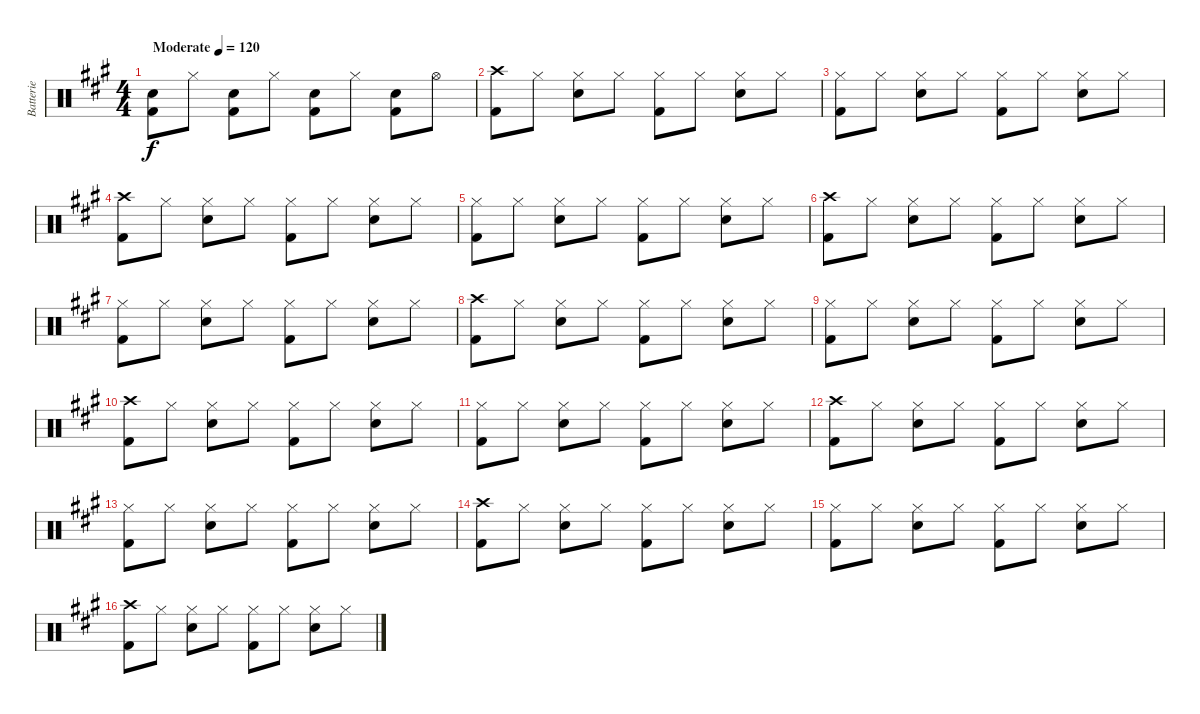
\track ("Batterie" "Batterie") {instrument percussion}
\staff {score}
\articulation defaults
\ts (4 4)
\tempo (120 "Moderate")
\clef neutral
\ks a
("Snare (hit) 2" "Kick (hit) 2").8{dy f} "Hi-Hat (closed)".8 ("Snare (hit) 2" "Kick (hit) 2").8 "Hi-Hat (closed)".8 ("Snare (hit) 2" "Kick (hit) 2").8 "Hi-Hat (closed)".8 ("Snare (hit) 2" "Kick (hit) 2").8 "Hi-Hat (open)".8 |
("Crash high (hit)" "Kick (hit) 2").8 "Hi-Hat (closed)".8 ("Hi-Hat (closed)" "Snare (hit) 2").8 "Hi-Hat (closed)".8 ("Hi-Hat (closed)" "Kick (hit) 2").8 "Hi-Hat (closed)".8 ("Hi-Hat (closed)" "Snare (hit) 2").8 "Hi-Hat (closed)".8 |
("Hi-Hat (closed)" "Kick (hit) 2").8 "Hi-Hat (closed)".8 ("Hi-Hat (closed)" "Snare (hit) 2").8 "Hi-Hat (closed)".8 ("Hi-Hat (closed)" "Kick (hit) 2").8 "Hi-Hat (closed)".8 ("Hi-Hat (closed)" "Snare (hit) 2").8 "Hi-Hat (closed)".8 |
("Crash high (hit)" "Kick (hit) 2").8 "Hi-Hat (closed)".8 ("Hi-Hat (closed)" "Snare (hit) 2").8 "Hi-Hat (closed)".8 ("Hi-Hat (closed)" "Kick (hit) 2").8 "Hi-Hat (closed)".8 ("Hi-Hat (closed)" "Snare (hit) 2").8 "Hi-Hat (closed)".8 |
("Hi-Hat (closed)" "Kick (hit) 2").8 "Hi-Hat (closed)".8 ("Hi-Hat (closed)" "Snare (hit) 2").8 "Hi-Hat (closed)".8 ("Hi-Hat (closed)" "Kick (hit) 2").8 "Hi-Hat (closed)".8 ("Hi-Hat (closed)" "Snare (hit) 2").8 "Hi-Hat (closed)".8 |
("Crash high (hit)" "Kick (hit) 2").8 "Hi-Hat (closed)".8 ("Hi-Hat (closed)" "Snare (hit) 2").8 "Hi-Hat (closed)".8 ("Hi-Hat (closed)" "Kick (hit) 2").8 "Hi-Hat (closed)".8 ("Hi-Hat (closed)" "Snare (hit) 2").8 "Hi-Hat (closed)".8 |
("Hi-Hat (closed)" "Kick (hit) 2").8 "Hi-Hat (closed)".8 ("Hi-Hat (closed)" "Snare (hit) 2").8 "Hi-Hat (closed)".8 ("Hi-Hat (closed)" "Kick (hit) 2").8 "Hi-Hat (closed)".8 ("Hi-Hat (closed)" "Snare (hit) 2").8 "Hi-Hat (closed)".8 |
("Crash high (hit)" "Kick (hit) 2").8 "Hi-Hat (closed)".8 ("Hi-Hat (closed)" "Snare (hit) 2").8 "Hi-Hat (closed)".8 ("Hi-Hat (closed)" "Kick (hit) 2").8 "Hi-Hat (closed)".8 ("Hi-Hat (closed)" "Snare (hit) 2").8 "Hi-Hat (closed)".8 |
("Hi-Hat (closed)" "Kick (hit) 2").8 "Hi-Hat (closed)".8 ("Hi-Hat (closed)" "Snare (hit) 2").8 "Hi-Hat (closed)".8 ("Hi-Hat (closed)" "Kick (hit) 2").8 "Hi-Hat (closed)".8 ("Hi-Hat (closed)" "Snare (hit) 2").8 "Hi-Hat (closed)".8 |
("Crash high (hit)" "Kick (hit) 2").8 "Hi-Hat (closed)".8 ("Hi-Hat (closed)" "Snare (hit) 2").8 "Hi-Hat (closed)".8 ("Hi-Hat (closed)" "Kick (hit) 2").8 "Hi-Hat (closed)".8 ("Hi-Hat (closed)" "Snare (hit) 2").8 "Hi-Hat (closed)".8 |
("Hi-Hat (closed)" "Kick (hit) 2").8 "Hi-Hat (closed)".8 ("Hi-Hat (closed)" "Snare (hit) 2").8 "Hi-Hat (closed)".8 ("Hi-Hat (closed)" "Kick (hit) 2").8 "Hi-Hat (closed)".8 ("Hi-Hat (closed)" "Snare (hit) 2").8 "Hi-Hat (closed)".8 |
("Crash high (hit)" "Kick (hit) 2").8 "Hi-Hat (closed)".8 ("Hi-Hat (closed)" "Snare (hit) 2").8 "Hi-Hat (closed)".8 ("Hi-Hat (closed)" "Kick (hit) 2").8 "Hi-Hat (closed)".8 ("Hi-Hat (closed)" "Snare (hit) 2").8 "Hi-Hat (closed)".8 |
("Hi-Hat (closed)" "Kick (hit) 2").8 "Hi-Hat (closed)".8 ("Hi-Hat (closed)" "Snare (hit) 2").8 "Hi-Hat (closed)".8 ("Hi-Hat (closed)" "Kick (hit) 2").8 "Hi-Hat (closed)".8 ("Hi-Hat (closed)" "Snare (hit) 2").8 "Hi-Hat (closed)".8 |
("Crash high (hit)" "Kick (hit) 2").8 "Hi-Hat (closed)".8 ("Hi-Hat (closed)" "Snare (hit) 2").8 "Hi-Hat (closed)".8 ("Hi-Hat (closed)" "Kick (hit) 2").8 "Hi-Hat (closed)".8 ("Hi-Hat (closed)" "Snare (hit) 2").8 "Hi-Hat (closed)".8 |
("Hi-Hat (closed)" "Kick (hit) 2").8 "Hi-Hat (closed)".8 ("Hi-Hat (closed)" "Snare (hit) 2").8 "Hi-Hat (closed)".8 ("Hi-Hat (closed)" "Kick (hit) 2").8 "Hi-Hat (closed)".8 ("Hi-Hat (closed)" "Snare (hit) 2").8 "Hi-Hat (closed)".8 |
("Crash high (hit)" "Kick (hit) 2").8 "Hi-Hat (closed)".8 ("Hi-Hat (closed)" "Snare (hit) 2").8 "Hi-Hat (closed)".8 ("Hi-Hat (closed)" "Kick (hit) 2").8 "Hi-Hat (closed)".8 ("Hi-Hat (closed)" "Snare (hit) 2").8 "Hi-Hat (closed)".8
